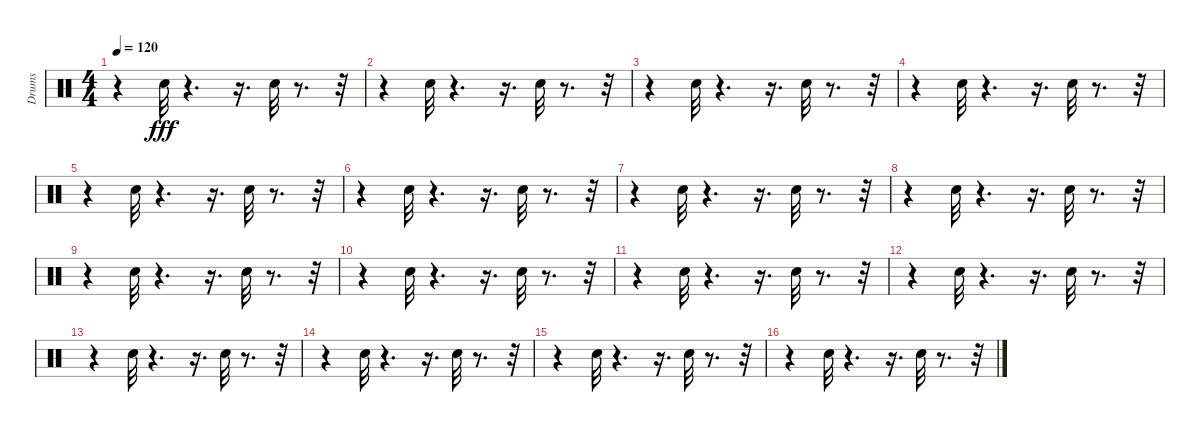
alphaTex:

\track ("Drums" "Drums") {instrument percussion}
\staff {score}
\articulation defaults
\ts (4 4)
\tempo 120
\clef neutral
\ks c
r.4{dy fff} "Snare (hit) 2".32 r.4{d} r.16{d} "Snare (hit) 2".32 r.8{d} r.32 |
r.4 "Snare (hit) 2".32 r.4{d} r.16{d} "Snare (hit) 2".32 r.8{d} r.32 |
r.4 "Snare (hit) 2".32 r.4{d} r.16{d} "Snare (hit) 2".32 r.8{d} r.32 |
r.4 "Snare (hit) 2".32 r.4{d} r.16{d} "Snare (hit) 2".32 r.8{d} r.32 |
r.4 "Snare (hit) 2".32 r.4{d} r.16{d} "Snare (hit) 2".32 r.8{d} r.32 |
r.4 "Snare (hit) 2".32 r.4{d} r.16{d} "Snare (hit) 2".32 r.8{d} r.32 |
r.4 "Snare (hit) 2".32 r.4{d} r.16{d} "Snare (hit) 2".32 r.8{d} r.32 |
r.4 "Snare (hit) 2".32 r.4{d} r.16{d} "Snare (hit) 2".32 r.8{d} r.32 |
r.4 "Snare (hit) 2".32 r.4{d} r.16{d} "Snare (hit) 2".32 r.8{d} r.32 |
r.4 "Snare (hit) 2".32 r.4{d} r.16{d} "Snare (hit) 2".32 r.8{d} r.32 |
r.4 "Snare (hit) 2".32 r.4{d} r.16{d} "Snare (hit) 2".32 r.8{d} r.32 |
r.4 "Snare (hit) 2".32 r.4{d} r.16{d} "Snare (hit) 2".32 r.8{d} r.32 |
r.4 "Snare (hit) 2".32 r.4{d} r.16{d} "Snare (hit) 2".32 r.8{d} r.32 |
r.4 "Snare (hit) 2".32 r.4{d} r.16{d} "Snare (hit) 2".32 r.8{d} r.32 |
r.4 "Snare (hit) 2".32 r.4{d} r.16{d} "Snare (hit) 2".32 r.8{d} r.32 |
r.4 "Snare (hit) 2".32 r.4{d} r.16{d} "Snare (hit) 2".32 r.8{d} r.32
